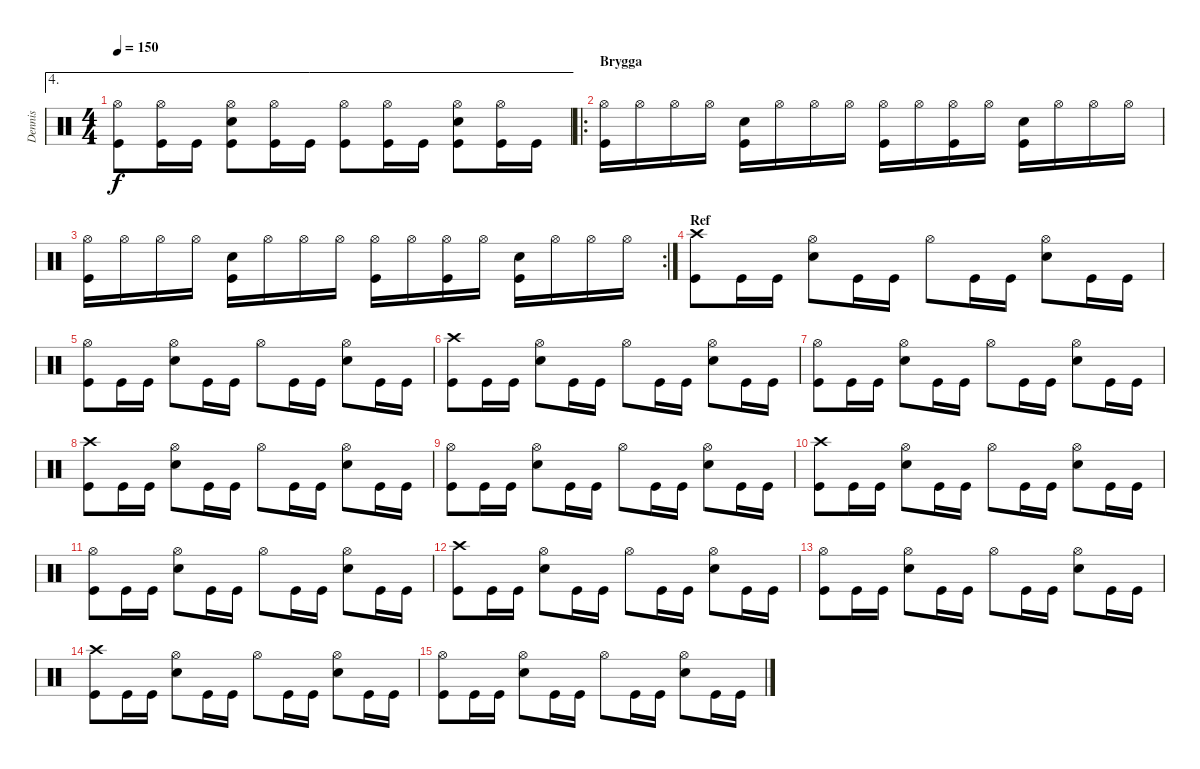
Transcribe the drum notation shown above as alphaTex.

\track ("Dennis" "Dennis") {instrument percussion}
\staff {score}
\articulation defaults
\ae 4
\ts (4 4)
\tempo 150
\clef neutral
\ks c
("Hi-Hat (open)" "Kick (hit)").8{dy f} ("Hi-Hat (open)" "Kick (hit)").16 "Kick (hit)".16 ("Hi-Hat (open)" "Kick (hit)" "Snare (hit) 2").8 ("Hi-Hat (open)" "Kick (hit)").16 "Kick (hit)".16 ("Hi-Hat (open)" "Kick (hit)").8 ("Hi-Hat (open)" "Kick (hit)").16 "Kick (hit)".16 ("Hi-Hat (open)" "Kick (hit)" "Snare (hit) 2").8 ("Hi-Hat (open)" "Kick (hit)").16 "Kick (hit)".16 |
\ro
\section ("" "Brygga")
("Hi-Hat (open)" "Kick (hit)").16 "Hi-Hat (open)".16 "Hi-Hat (open)".16 "Hi-Hat (open)".16 ("Snare (hit) 2" "Kick (hit)").16 "Hi-Hat (open)".16 "Hi-Hat (open)".16 "Hi-Hat (open)".16 ("Hi-Hat (open)" "Kick (hit)").16 "Hi-Hat (open)".16 ("Hi-Hat (open)" "Kick (hit)").16 "Hi-Hat (open)".16 ("Snare (hit) 2" "Kick (hit)").16 "Hi-Hat (open)".16 "Hi-Hat (open)".16 "Hi-Hat (open)".16 |
\rc 2
("Hi-Hat (open)" "Kick (hit)").16 "Hi-Hat (open)".16 "Hi-Hat (open)".16 "Hi-Hat (open)".16 ("Snare (hit) 2" "Kick (hit)").16 "Hi-Hat (open)".16 "Hi-Hat (open)".16 "Hi-Hat (open)".16 ("Hi-Hat (open)" "Kick (hit)").16 "Hi-Hat (open)".16 ("Hi-Hat (open)" "Kick (hit)").16 "Hi-Hat (open)".16 ("Snare (hit) 2" "Kick (hit)").16 "Hi-Hat (open)".16 "Hi-Hat (open)".16 "Hi-Hat (open)".16 |
\section ("" "Ref")
("Crash high (hit)" "Kick (hit)").8 "Kick (hit)".16 "Kick (hit)".16 ("Hi-Hat (open)" "Snare (hit) 2").8 "Kick (hit)".16 "Kick (hit)".16 "Hi-Hat (open)".8 "Kick (hit)".16 "Kick (hit)".16 ("Hi-Hat (open)" "Snare (hit) 2").8 "Kick (hit)".16 "Kick (hit)".16 |
("Hi-Hat (open)" "Kick (hit)").8 "Kick (hit)".16 "Kick (hit)".16 ("Hi-Hat (open)" "Snare (hit) 2").8 "Kick (hit)".16 "Kick (hit)".16 "Hi-Hat (open)".8 "Kick (hit)".16 "Kick (hit)".16 ("Hi-Hat (open)" "Snare (hit) 2").8 "Kick (hit)".16 "Kick (hit)".16 |
("Crash high (hit)" "Kick (hit)").8 "Kick (hit)".16 "Kick (hit)".16 ("Hi-Hat (open)" "Snare (hit) 2").8 "Kick (hit)".16 "Kick (hit)".16 "Hi-Hat (open)".8 "Kick (hit)".16 "Kick (hit)".16 ("Hi-Hat (open)" "Snare (hit) 2").8 "Kick (hit)".16 "Kick (hit)".16 |
("Hi-Hat (open)" "Kick (hit)").8 "Kick (hit)".16 "Kick (hit)".16 ("Hi-Hat (open)" "Snare (hit) 2").8 "Kick (hit)".16 "Kick (hit)".16 "Hi-Hat (open)".8 "Kick (hit)".16 "Kick (hit)".16 ("Hi-Hat (open)" "Snare (hit) 2").8 "Kick (hit)".16 "Kick (hit)".16 |
("Crash high (hit)" "Kick (hit)").8 "Kick (hit)".16 "Kick (hit)".16 ("Hi-Hat (open)" "Snare (hit) 2").8 "Kick (hit)".16 "Kick (hit)".16 "Hi-Hat (open)".8 "Kick (hit)".16 "Kick (hit)".16 ("Hi-Hat (open)" "Snare (hit) 2").8 "Kick (hit)".16 "Kick (hit)".16 |
("Hi-Hat (open)" "Kick (hit)").8 "Kick (hit)".16 "Kick (hit)".16 ("Hi-Hat (open)" "Snare (hit) 2").8 "Kick (hit)".16 "Kick (hit)".16 "Hi-Hat (open)".8 "Kick (hit)".16 "Kick (hit)".16 ("Hi-Hat (open)" "Snare (hit) 2").8 "Kick (hit)".16 "Kick (hit)".16 |
("Crash high (hit)" "Kick (hit)").8 "Kick (hit)".16 "Kick (hit)".16 ("Hi-Hat (open)" "Snare (hit) 2").8 "Kick (hit)".16 "Kick (hit)".16 "Hi-Hat (open)".8 "Kick (hit)".16 "Kick (hit)".16 ("Hi-Hat (open)" "Snare (hit) 2").8 "Kick (hit)".16 "Kick (hit)".16 |
("Hi-Hat (open)" "Kick (hit)").8 "Kick (hit)".16 "Kick (hit)".16 ("Hi-Hat (open)" "Snare (hit) 2").8 "Kick (hit)".16 "Kick (hit)".16 "Hi-Hat (open)".8 "Kick (hit)".16 "Kick (hit)".16 ("Hi-Hat (open)" "Snare (hit) 2").8 "Kick (hit)".16 "Kick (hit)".16 |
("Crash high (hit)" "Kick (hit)").8 "Kick (hit)".16 "Kick (hit)".16 ("Hi-Hat (open)" "Snare (hit) 2").8 "Kick (hit)".16 "Kick (hit)".16 "Hi-Hat (open)".8 "Kick (hit)".16 "Kick (hit)".16 ("Hi-Hat (open)" "Snare (hit) 2").8 "Kick (hit)".16 "Kick (hit)".16 |
("Hi-Hat (open)" "Kick (hit)").8 "Kick (hit)".16 "Kick (hit)".16 ("Hi-Hat (open)" "Snare (hit) 2").8 "Kick (hit)".16 "Kick (hit)".16 "Hi-Hat (open)".8 "Kick (hit)".16 "Kick (hit)".16 ("Hi-Hat (open)" "Snare (hit) 2").8 "Kick (hit)".16 "Kick (hit)".16 |
("Crash high (hit)" "Kick (hit)").8 "Kick (hit)".16 "Kick (hit)".16 ("Hi-Hat (open)" "Snare (hit) 2").8 "Kick (hit)".16 "Kick (hit)".16 "Hi-Hat (open)".8 "Kick (hit)".16 "Kick (hit)".16 ("Hi-Hat (open)" "Snare (hit) 2").8 "Kick (hit)".16 "Kick (hit)".16 |
("Hi-Hat (open)" "Kick (hit)").8 "Kick (hit)".16 "Kick (hit)".16 ("Hi-Hat (open)" "Snare (hit) 2").8 "Kick (hit)".16 "Kick (hit)".16 "Hi-Hat (open)".8 "Kick (hit)".16 "Kick (hit)".16 ("Hi-Hat (open)" "Snare (hit) 2").8 "Kick (hit)".16 "Kick (hit)".16
